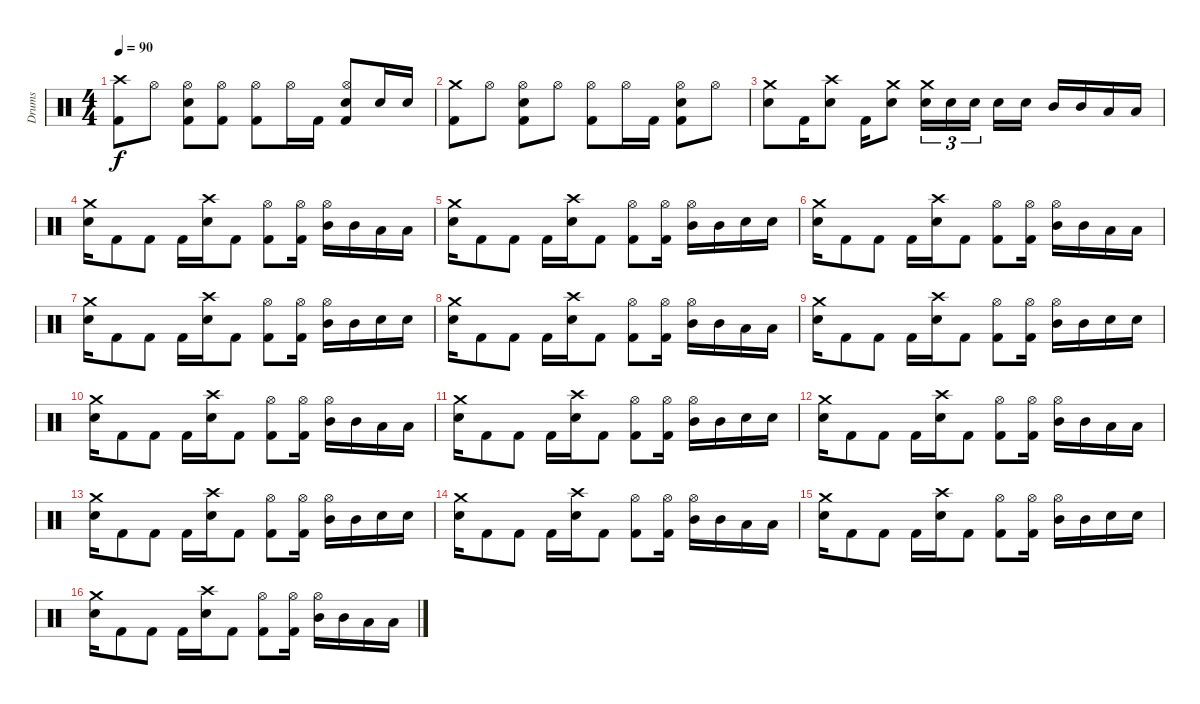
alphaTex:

\track ("Drums" "Drums") {instrument percussion}
\staff {score}
\articulation defaults
\ts (4 4)
\tempo 90
\clef neutral
\ks c
("Crash high (hit)" "Kick (hit) 2").8{dy f} "Hi-Hat (open)".8 ("Hi-Hat (open)" "Electric Snare (hit)" "Kick (hit) 2").8 ("Hi-Hat (open)" "Kick (hit) 2").8 ("Hi-Hat (open)" "Kick (hit) 2").8 "Hi-Hat (open)".16 "Kick (hit) 2".16 ("Hi-Hat (open)" "Electric Snare (hit)" "Kick (hit) 2").8 "Electric Snare (hit)".16 "Electric Snare (hit)".16 |
("Crash medium (hit)" "Kick (hit) 2").8 "Hi-Hat (open)".8 ("Hi-Hat (open)" "Electric Snare (hit)" "Kick (hit) 2").8 "Hi-Hat (open)".8 ("Hi-Hat (open)" "Kick (hit) 2").8 "Hi-Hat (open)".16 "Kick (hit) 2".16 ("Hi-Hat (open)" "Electric Snare (hit)" "Kick (hit) 2").8 "Hi-Hat (open)".8 |
("Crash medium (hit)" "Electric Snare (hit)").8 "Kick (hit) 2".16 ("Crash high (hit)" "Electric Snare (hit)").8 "Kick (hit) 2".16 ("Crash medium (hit)" "Electric Snare (hit)").8 ("Crash medium (hit)" "Electric Snare (hit)").16{tu (3 2)} "Electric Snare (hit)".16{tu (3 2)} "Electric Snare (hit)".16{tu (3 2) beam splitsecondary} "Electric Snare (hit)".16 "Electric Snare (hit)".16 "Mid Tom (hit)".16 "Mid Tom (hit)".16 "Low Tom (hit)".16 "Low Tom (hit)".16 |
("Crash medium (hit)" "Electric Snare (hit)").16 "Kick (hit) 2".8 "Kick (hit) 2".8 "Kick (hit) 2".16 ("Crash high (hit)" "Electric Snare (hit)").16 "Kick (hit) 2".8 ("Hi-Hat (open)" "Kick (hit) 2").8 ("Hi-Hat (open)" "Kick (hit) 2").16 ("Hi-Hat (open)" "Mid Tom (hit)").16 "Mid Tom (hit)".16 "Low Tom (hit)".16 "Low Tom (hit)".16 |
("Crash medium (hit)" "Electric Snare (hit)").16 "Kick (hit) 2".8 "Kick (hit) 2".8 "Kick (hit) 2".16 ("Crash high (hit)" "Electric Snare (hit)").16 "Kick (hit) 2".8 ("Hi-Hat (open)" "Kick (hit) 2").8 ("Hi-Hat (open)" "Kick (hit) 2").16 ("Hi-Hat (open)" "Mid Tom (hit)").16 "Mid Tom (hit)".16 "Electric Snare (hit)".16 "Electric Snare (hit)".16 |
("Crash medium (hit)" "Electric Snare (hit)").16 "Kick (hit) 2".8 "Kick (hit) 2".8 "Kick (hit) 2".16 ("Crash high (hit)" "Electric Snare (hit)").16 "Kick (hit) 2".8 ("Hi-Hat (open)" "Kick (hit) 2").8 ("Hi-Hat (open)" "Kick (hit) 2").16 ("Hi-Hat (open)" "Mid Tom (hit)").16 "Mid Tom (hit)".16 "Low Tom (hit)".16 "Low Tom (hit)".16 |
("Crash medium (hit)" "Electric Snare (hit)").16 "Kick (hit) 2".8 "Kick (hit) 2".8 "Kick (hit) 2".16 ("Crash high (hit)" "Electric Snare (hit)").16 "Kick (hit) 2".8 ("Hi-Hat (open)" "Kick (hit) 2").8 ("Hi-Hat (open)" "Kick (hit) 2").16 ("Hi-Hat (open)" "Mid Tom (hit)").16 "Mid Tom (hit)".16 "Electric Snare (hit)".16 "Electric Snare (hit)".16 |
("Crash medium (hit)" "Electric Snare (hit)").16 "Kick (hit) 2".8 "Kick (hit) 2".8 "Kick (hit) 2".16 ("Crash high (hit)" "Electric Snare (hit)").16 "Kick (hit) 2".8 ("Hi-Hat (open)" "Kick (hit) 2").8 ("Hi-Hat (open)" "Kick (hit) 2").16 ("Hi-Hat (open)" "Mid Tom (hit)").16 "Mid Tom (hit)".16 "Low Tom (hit)".16 "Low Tom (hit)".16 |
("Crash medium (hit)" "Electric Snare (hit)").16 "Kick (hit) 2".8 "Kick (hit) 2".8 "Kick (hit) 2".16 ("Crash high (hit)" "Electric Snare (hit)").16 "Kick (hit) 2".8 ("Hi-Hat (open)" "Kick (hit) 2").8 ("Hi-Hat (open)" "Kick (hit) 2").16 ("Hi-Hat (open)" "Mid Tom (hit)").16 "Mid Tom (hit)".16 "Electric Snare (hit)".16 "Electric Snare (hit)".16 |
("Crash medium (hit)" "Electric Snare (hit)").16 "Kick (hit) 2".8 "Kick (hit) 2".8 "Kick (hit) 2".16 ("Crash high (hit)" "Electric Snare (hit)").16 "Kick (hit) 2".8 ("Hi-Hat (open)" "Kick (hit) 2").8 ("Hi-Hat (open)" "Kick (hit) 2").16 ("Hi-Hat (open)" "Mid Tom (hit)").16 "Mid Tom (hit)".16 "Low Tom (hit)".16 "Low Tom (hit)".16 |
("Crash medium (hit)" "Electric Snare (hit)").16 "Kick (hit) 2".8 "Kick (hit) 2".8 "Kick (hit) 2".16 ("Crash high (hit)" "Electric Snare (hit)").16 "Kick (hit) 2".8 ("Hi-Hat (open)" "Kick (hit) 2").8 ("Hi-Hat (open)" "Kick (hit) 2").16 ("Hi-Hat (open)" "Mid Tom (hit)").16 "Mid Tom (hit)".16 "Electric Snare (hit)".16 "Electric Snare (hit)".16 |
("Crash medium (hit)" "Electric Snare (hit)").16 "Kick (hit) 2".8 "Kick (hit) 2".8 "Kick (hit) 2".16 ("Crash high (hit)" "Electric Snare (hit)").16 "Kick (hit) 2".8 ("Hi-Hat (open)" "Kick (hit) 2").8 ("Hi-Hat (open)" "Kick (hit) 2").16 ("Hi-Hat (open)" "Mid Tom (hit)").16 "Mid Tom (hit)".16 "Low Tom (hit)".16 "Low Tom (hit)".16 |
("Crash medium (hit)" "Electric Snare (hit)").16 "Kick (hit) 2".8 "Kick (hit) 2".8 "Kick (hit) 2".16 ("Crash high (hit)" "Electric Snare (hit)").16 "Kick (hit) 2".8 ("Hi-Hat (open)" "Kick (hit) 2").8 ("Hi-Hat (open)" "Kick (hit) 2").16 ("Hi-Hat (open)" "Mid Tom (hit)").16 "Mid Tom (hit)".16 "Electric Snare (hit)".16 "Electric Snare (hit)".16 |
("Crash medium (hit)" "Electric Snare (hit)").16 "Kick (hit) 2".8 "Kick (hit) 2".8 "Kick (hit) 2".16 ("Crash high (hit)" "Electric Snare (hit)").16 "Kick (hit) 2".8 ("Hi-Hat (open)" "Kick (hit) 2").8 ("Hi-Hat (open)" "Kick (hit) 2").16 ("Hi-Hat (open)" "Mid Tom (hit)").16 "Mid Tom (hit)".16 "Low Tom (hit)".16 "Low Tom (hit)".16 |
("Crash medium (hit)" "Electric Snare (hit)").16 "Kick (hit) 2".8 "Kick (hit) 2".8 "Kick (hit) 2".16 ("Crash high (hit)" "Electric Snare (hit)").16 "Kick (hit) 2".8 ("Hi-Hat (open)" "Kick (hit) 2").8 ("Hi-Hat (open)" "Kick (hit) 2").16 ("Hi-Hat (open)" "Mid Tom (hit)").16 "Mid Tom (hit)".16 "Electric Snare (hit)".16 "Electric Snare (hit)".16 |
("Crash medium (hit)" "Electric Snare (hit)").16 "Kick (hit) 2".8 "Kick (hit) 2".8 "Kick (hit) 2".16 ("Crash high (hit)" "Electric Snare (hit)").16 "Kick (hit) 2".8 ("Hi-Hat (open)" "Kick (hit) 2").8 ("Hi-Hat (open)" "Kick (hit) 2").16 ("Hi-Hat (open)" "Mid Tom (hit)").16 "Mid Tom (hit)".16 "Low Tom (hit)".16 "Low Tom (hit)".16
